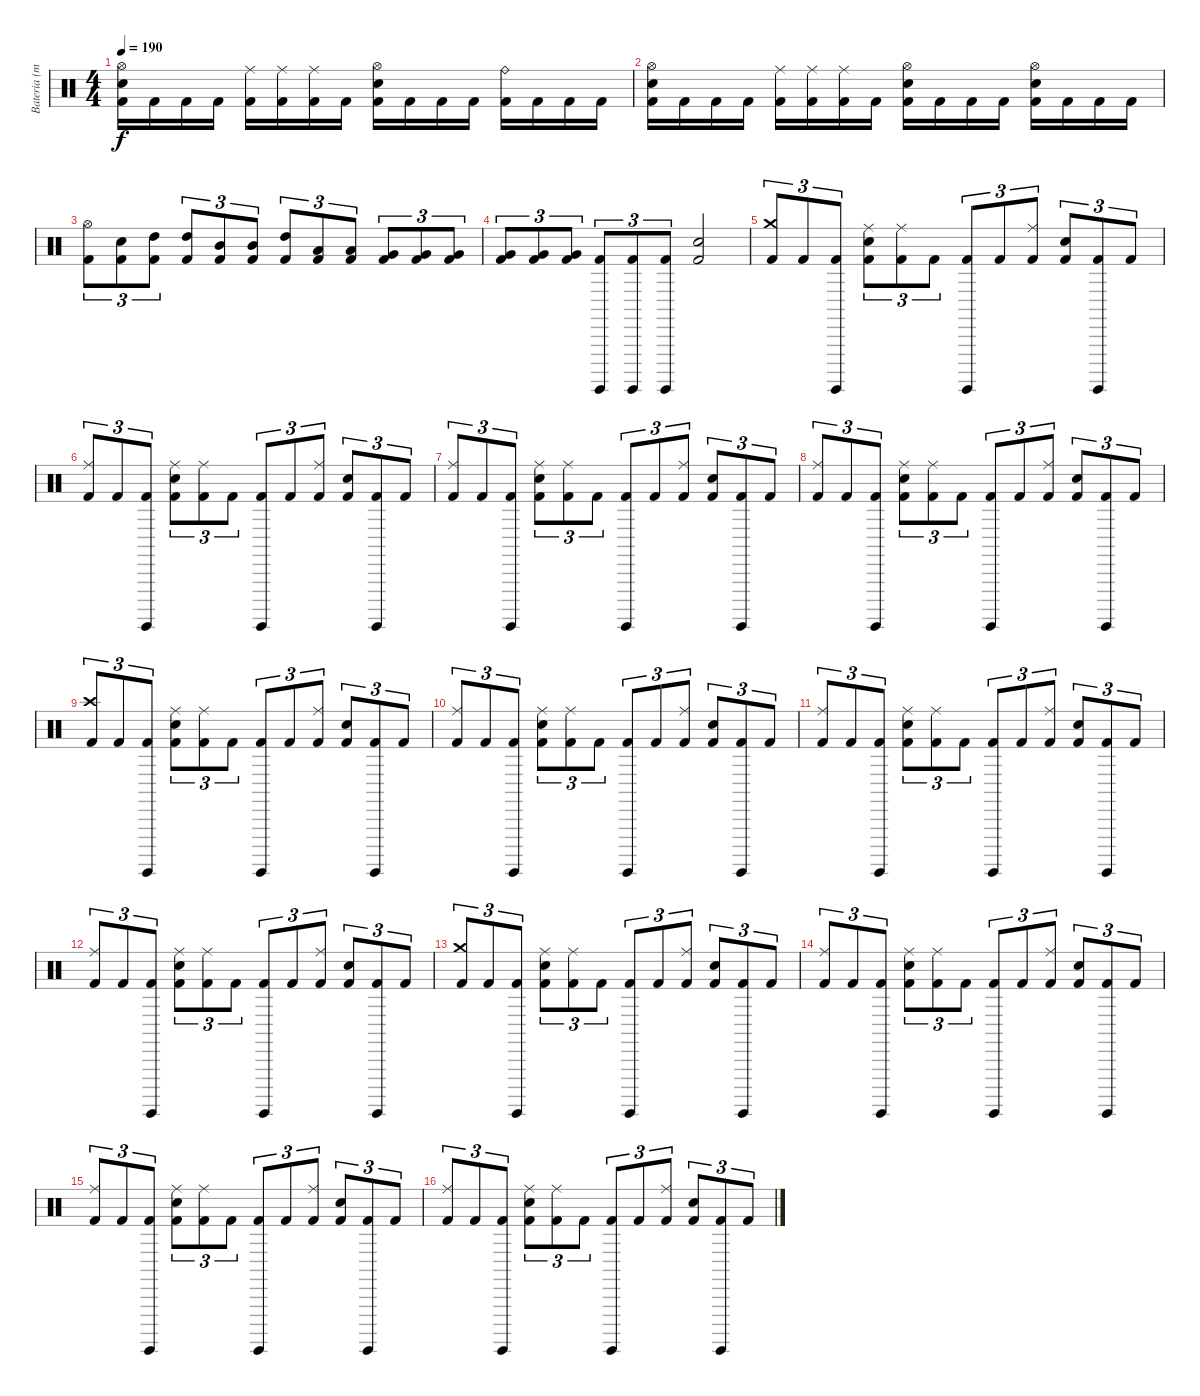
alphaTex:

\track ("Bateria (mestre Aquiles Priester)" "Bateria (m") {instrument percussion}
\staff {score}
\articulation defaults
\ts (4 4)
\tempo 190
\clef neutral
\ks c
("Kick (hit) 2" "Electric Snare (hit)" "Hi-Hat (open)").16{dy f} "Kick (hit) 2".16 "Kick (hit) 2".16 "Kick (hit) 2".16 ("Kick (hit) 2" "Ride (middle)").16 ("Kick (hit) 2" "Ride (middle)").16 ("Kick (hit) 2" "Ride (middle)").16 "Kick (hit) 2".16 ("Kick (hit) 2" "Electric Snare (hit)" "Hi-Hat (open)").16 "Kick (hit) 2".16 "Kick (hit) 2".16 "Kick (hit) 2".16 ("Kick (hit) 2" "Ride (bell)").16 "Kick (hit) 2".16 "Kick (hit) 2".16 "Kick (hit) 2".16 |
("Kick (hit) 2" "Electric Snare (hit)" "Hi-Hat (open)").16 "Kick (hit) 2".16 "Kick (hit) 2".16 "Kick (hit) 2".16 ("Kick (hit) 2" "Ride (middle)").16 ("Kick (hit) 2" "Ride (middle)").16 ("Kick (hit) 2" "Ride (middle)").16 "Kick (hit) 2".16 ("Kick (hit) 2" "Electric Snare (hit)" "Hi-Hat (open)").16 "Kick (hit) 2".16 "Kick (hit) 2".16 "Kick (hit) 2".16 ("Kick (hit) 2" "Electric Snare (hit)" "Hi-Hat (open)").16 "Kick (hit) 2".16 "Kick (hit) 2".16 "Kick (hit) 2".16 |
("Kick (hit) 2" "Hi-Hat (open)").8{tu (3 2)} ("Kick (hit) 2" "Electric Snare (hit)").8{tu (3 2)} ("Kick (hit) 2" "High Tom (hit)").8{tu (3 2)} ("Kick (hit) 2" "High Tom (hit)").8{tu (3 2)} ("Kick (hit) 2" "Mid Tom (hit)").8{tu (3 2)} ("Kick (hit) 2" "Mid Tom (hit)").8{tu (3 2)} ("Kick (hit) 2" "High Tom (hit)").8{tu (3 2)} ("Kick (hit) 2" "Low Tom (hit)").8{tu (3 2)} ("Kick (hit) 2" "Low Tom (hit)").8{tu (3 2)} ("Kick (hit) 2" "Very Low Tom (hit)").8{tu (3 2)} ("Kick (hit) 2" "Very Low Tom (hit)").8{tu (3 2)} ("Kick (hit) 2" "Very Low Tom (hit)").8{tu (3 2)} |
("Kick (hit) 2" "Very Low Tom (hit)").8{tu (3 2)} ("Kick (hit) 2" "Very Low Tom (hit)").8{tu (3 2)} ("Kick (hit) 2" "Very Low Tom (hit)").8{tu (3 2)} ("Kick (hit) 2" "Surdo (hit)").8{tu (3 2)} ("Kick (hit) 2" "Surdo (hit)").8{tu (3 2)} ("Kick (hit) 2" "Surdo (hit)").8{tu (3 2)} ("Kick (hit) 2" "Electric Snare (hit)").2 |
("Kick (hit) 2" "Crash medium (hit)").8{tu (3 2)} "Kick (hit) 2".8{tu (3 2)} ("Kick (hit) 2" "Surdo (hit)").8{tu (3 2)} ("Kick (hit) 2" "Electric Snare (hit)" "Ride (middle)").8{tu (3 2)} ("Kick (hit) 2" "Ride (middle)").8{tu (3 2)} "Kick (hit) 2".8{tu (3 2)} ("Kick (hit) 2" "Surdo (hit)").8{tu (3 2)} "Kick (hit) 2".8{tu (3 2)} ("Kick (hit) 2" "Ride (middle)").8{tu (3 2)} ("Kick (hit) 2" "Electric Snare (hit)").8{tu (3 2)} ("Kick (hit) 2" "Surdo (hit)").8{tu (3 2)} "Kick (hit) 2".8{tu (3 2)} |
("Kick (hit) 2" "Ride (middle)").8{tu (3 2)} "Kick (hit) 2".8{tu (3 2)} ("Kick (hit) 2" "Surdo (hit)").8{tu (3 2)} ("Kick (hit) 2" "Electric Snare (hit)" "Ride (middle)").8{tu (3 2)} ("Kick (hit) 2" "Ride (middle)").8{tu (3 2)} "Kick (hit) 2".8{tu (3 2)} ("Kick (hit) 2" "Surdo (hit)").8{tu (3 2)} "Kick (hit) 2".8{tu (3 2)} ("Kick (hit) 2" "Ride (middle)").8{tu (3 2)} ("Kick (hit) 2" "Electric Snare (hit)").8{tu (3 2)} ("Kick (hit) 2" "Surdo (hit)").8{tu (3 2)} "Kick (hit) 2".8{tu (3 2)} |
("Kick (hit) 2" "Ride (middle)").8{tu (3 2)} "Kick (hit) 2".8{tu (3 2)} ("Kick (hit) 2" "Surdo (hit)").8{tu (3 2)} ("Kick (hit) 2" "Electric Snare (hit)" "Ride (middle)").8{tu (3 2)} ("Kick (hit) 2" "Ride (middle)").8{tu (3 2)} "Kick (hit) 2".8{tu (3 2)} ("Kick (hit) 2" "Surdo (hit)").8{tu (3 2)} "Kick (hit) 2".8{tu (3 2)} ("Kick (hit) 2" "Ride (middle)").8{tu (3 2)} ("Kick (hit) 2" "Electric Snare (hit)").8{tu (3 2)} ("Kick (hit) 2" "Surdo (hit)").8{tu (3 2)} "Kick (hit) 2".8{tu (3 2)} |
("Kick (hit) 2" "Ride (middle)").8{tu (3 2)} "Kick (hit) 2".8{tu (3 2)} ("Kick (hit) 2" "Surdo (hit)").8{tu (3 2)} ("Kick (hit) 2" "Electric Snare (hit)" "Ride (middle)").8{tu (3 2)} ("Kick (hit) 2" "Ride (middle)").8{tu (3 2)} "Kick (hit) 2".8{tu (3 2)} ("Kick (hit) 2" "Surdo (hit)").8{tu (3 2)} "Kick (hit) 2".8{tu (3 2)} ("Kick (hit) 2" "Ride (middle)").8{tu (3 2)} ("Kick (hit) 2" "Electric Snare (hit)").8{tu (3 2)} ("Kick (hit) 2" "Surdo (hit)").8{tu (3 2)} "Kick (hit) 2".8{tu (3 2)} |
("Kick (hit) 2" "Crash high (hit)").8{tu (3 2)} "Kick (hit) 2".8{tu (3 2)} ("Kick (hit) 2" "Surdo (hit)").8{tu (3 2)} ("Kick (hit) 2" "Electric Snare (hit)" "Ride (middle)").8{tu (3 2)} ("Kick (hit) 2" "Ride (middle)").8{tu (3 2)} "Kick (hit) 2".8{tu (3 2)} ("Kick (hit) 2" "Surdo (hit)").8{tu (3 2)} "Kick (hit) 2".8{tu (3 2)} ("Kick (hit) 2" "Ride (middle)").8{tu (3 2)} ("Kick (hit) 2" "Electric Snare (hit)").8{tu (3 2)} ("Kick (hit) 2" "Surdo (hit)").8{tu (3 2)} "Kick (hit) 2".8{tu (3 2)} |
("Kick (hit) 2" "Ride (middle)").8{tu (3 2)} "Kick (hit) 2".8{tu (3 2)} ("Kick (hit) 2" "Surdo (hit)").8{tu (3 2)} ("Kick (hit) 2" "Electric Snare (hit)" "Ride (middle)").8{tu (3 2)} ("Kick (hit) 2" "Ride (middle)").8{tu (3 2)} "Kick (hit) 2".8{tu (3 2)} ("Kick (hit) 2" "Surdo (hit)").8{tu (3 2)} "Kick (hit) 2".8{tu (3 2)} ("Kick (hit) 2" "Ride (middle)").8{tu (3 2)} ("Kick (hit) 2" "Electric Snare (hit)").8{tu (3 2)} ("Kick (hit) 2" "Surdo (hit)").8{tu (3 2)} "Kick (hit) 2".8{tu (3 2)} |
("Kick (hit) 2" "Ride (middle)").8{tu (3 2)} "Kick (hit) 2".8{tu (3 2)} ("Kick (hit) 2" "Surdo (hit)").8{tu (3 2)} ("Kick (hit) 2" "Electric Snare (hit)" "Ride (middle)").8{tu (3 2)} ("Kick (hit) 2" "Ride (middle)").8{tu (3 2)} "Kick (hit) 2".8{tu (3 2)} ("Kick (hit) 2" "Surdo (hit)").8{tu (3 2)} "Kick (hit) 2".8{tu (3 2)} ("Kick (hit) 2" "Ride (middle)").8{tu (3 2)} ("Kick (hit) 2" "Electric Snare (hit)").8{tu (3 2)} ("Kick (hit) 2" "Surdo (hit)").8{tu (3 2)} "Kick (hit) 2".8{tu (3 2)} |
("Kick (hit) 2" "Ride (middle)").8{tu (3 2)} "Kick (hit) 2".8{tu (3 2)} ("Kick (hit) 2" "Surdo (hit)").8{tu (3 2)} ("Kick (hit) 2" "Electric Snare (hit)" "Ride (middle)").8{tu (3 2)} ("Kick (hit) 2" "Ride (middle)").8{tu (3 2)} "Kick (hit) 2".8{tu (3 2)} ("Kick (hit) 2" "Surdo (hit)").8{tu (3 2)} "Kick (hit) 2".8{tu (3 2)} ("Kick (hit) 2" "Ride (middle)").8{tu (3 2)} ("Kick (hit) 2" "Electric Snare (hit)").8{tu (3 2)} ("Kick (hit) 2" "Surdo (hit)").8{tu (3 2)} "Kick (hit) 2".8{tu (3 2)} |
("Kick (hit) 2" "Crash medium (hit)").8{tu (3 2)} "Kick (hit) 2".8{tu (3 2)} ("Kick (hit) 2" "Surdo (hit)").8{tu (3 2)} ("Kick (hit) 2" "Electric Snare (hit)" "Ride (middle)").8{tu (3 2)} ("Kick (hit) 2" "Ride (middle)").8{tu (3 2)} "Kick (hit) 2".8{tu (3 2)} ("Kick (hit) 2" "Surdo (hit)").8{tu (3 2)} "Kick (hit) 2".8{tu (3 2)} ("Kick (hit) 2" "Ride (middle)").8{tu (3 2)} ("Kick (hit) 2" "Electric Snare (hit)").8{tu (3 2)} ("Kick (hit) 2" "Surdo (hit)").8{tu (3 2)} "Kick (hit) 2".8{tu (3 2)} |
("Kick (hit) 2" "Ride (middle)").8{tu (3 2)} "Kick (hit) 2".8{tu (3 2)} ("Kick (hit) 2" "Surdo (hit)").8{tu (3 2)} ("Kick (hit) 2" "Electric Snare (hit)" "Ride (middle)").8{tu (3 2)} ("Kick (hit) 2" "Ride (middle)").8{tu (3 2)} "Kick (hit) 2".8{tu (3 2)} ("Kick (hit) 2" "Surdo (hit)").8{tu (3 2)} "Kick (hit) 2".8{tu (3 2)} ("Kick (hit) 2" "Ride (middle)").8{tu (3 2)} ("Kick (hit) 2" "Electric Snare (hit)").8{tu (3 2)} ("Kick (hit) 2" "Surdo (hit)").8{tu (3 2)} "Kick (hit) 2".8{tu (3 2)} |
("Kick (hit) 2" "Ride (middle)").8{tu (3 2)} "Kick (hit) 2".8{tu (3 2)} ("Kick (hit) 2" "Surdo (hit)").8{tu (3 2)} ("Kick (hit) 2" "Electric Snare (hit)" "Ride (middle)").8{tu (3 2)} ("Kick (hit) 2" "Ride (middle)").8{tu (3 2)} "Kick (hit) 2".8{tu (3 2)} ("Kick (hit) 2" "Surdo (hit)").8{tu (3 2)} "Kick (hit) 2".8{tu (3 2)} ("Kick (hit) 2" "Ride (middle)").8{tu (3 2)} ("Kick (hit) 2" "Electric Snare (hit)").8{tu (3 2)} ("Kick (hit) 2" "Surdo (hit)").8{tu (3 2)} "Kick (hit) 2".8{tu (3 2)} |
("Kick (hit) 2" "Ride (middle)").8{tu (3 2)} "Kick (hit) 2".8{tu (3 2)} ("Kick (hit) 2" "Surdo (hit)").8{tu (3 2)} ("Kick (hit) 2" "Electric Snare (hit)" "Ride (middle)").8{tu (3 2)} ("Kick (hit) 2" "Ride (middle)").8{tu (3 2)} "Kick (hit) 2".8{tu (3 2)} ("Kick (hit) 2" "Surdo (hit)").8{tu (3 2)} "Kick (hit) 2".8{tu (3 2)} ("Kick (hit) 2" "Ride (middle)").8{tu (3 2)} ("Kick (hit) 2" "Electric Snare (hit)").8{tu (3 2)} ("Kick (hit) 2" "Surdo (hit)").8{tu (3 2)} "Kick (hit) 2".8{tu (3 2)}
